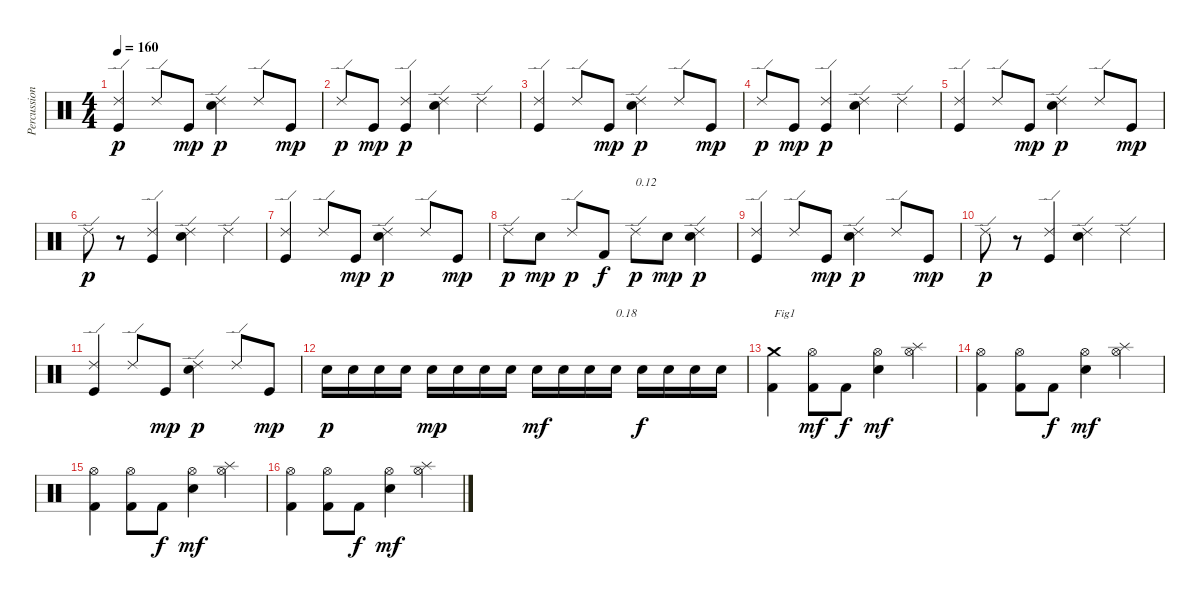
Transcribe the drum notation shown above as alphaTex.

\track ("Percussions" "Percussion") {instrument percussion}
\staff {score}
\articulation defaults
\ts (4 4)
\tempo 160
\clef neutral
\ks c
("Kick (hit)" "Ride (edge) 2").4{dy p} "Ride (edge) 2".8 "Kick (hit)".8{dy mp} ("Snare (hit) 2" "Ride (edge) 2").4{dy p} "Ride (edge) 2".8 "Kick (hit)".8{dy mp} |
"Ride (edge) 2".8{dy p} "Kick (hit)".8{dy mp} ("Kick (hit)" "Ride (edge) 2").4{dy p} ("Snare (hit) 2" "Ride (edge) 2").4 "Ride (edge) 2".4 |
("Kick (hit)" "Ride (edge) 2").4 "Ride (edge) 2".8 "Kick (hit)".8{dy mp} ("Snare (hit) 2" "Ride (edge) 2").4{dy p} "Ride (edge) 2".8 "Kick (hit)".8{dy mp} |
"Ride (edge) 2".8{dy p} "Kick (hit)".8{dy mp} ("Kick (hit)" "Ride (edge) 2").4{dy p} ("Snare (hit) 2" "Ride (edge) 2").4 "Ride (edge) 2".4 |
("Kick (hit)" "Ride (edge) 2").4 "Ride (edge) 2".8 "Kick (hit)".8{dy mp} ("Snare (hit) 2" "Ride (edge) 2").4{dy p} "Ride (edge) 2".8 "Kick (hit)".8{dy mp} |
"Ride (edge) 2".8{dy p} r.8 ("Kick (hit)" "Ride (edge) 2").4 ("Snare (hit) 2" "Ride (edge) 2").4 "Ride (edge) 2".4 |
("Kick (hit)" "Ride (edge) 2").4 "Ride (edge) 2".8 "Kick (hit)".8{dy mp} ("Snare (hit) 2" "Ride (edge) 2").4{dy p} "Ride (edge) 2".8 "Kick (hit)".8{dy mp} |
"Ride (edge) 2".8{dy p} "Snare (hit) 2".8{dy mp} "Ride (edge) 2".8{dy p} "Kick (hit) 2".8{dy f} "Ride (edge) 2".8{txt "0.12" dy p} "Snare (hit) 2".8{dy mp} ("Snare (hit) 2" "Ride (edge) 2").4{dy p} |
("Kick (hit)" "Ride (edge) 2").4 "Ride (edge) 2".8 "Kick (hit)".8{dy mp} ("Snare (hit) 2" "Ride (edge) 2").4{dy p} "Ride (edge) 2".8 "Kick (hit)".8{dy mp} |
"Ride (edge) 2".8{dy p} r.8 ("Kick (hit)" "Ride (edge) 2").4 ("Snare (hit) 2" "Ride (edge) 2").4 "Ride (edge) 2".4 |
("Kick (hit)" "Ride (edge) 2").4 "Ride (edge) 2".8 "Kick (hit)".8{dy mp} ("Snare (hit) 2" "Ride (edge) 2").4{dy p} "Ride (edge) 2".8 "Kick (hit)".8{dy mp} |
"Electric Snare (hit)".16{dy p} "Electric Snare (hit)".16 "Electric Snare (hit)".16 "Electric Snare (hit)".16 "Electric Snare (hit)".16{dy mp} "Electric Snare (hit)".16 "Electric Snare (hit)".16 "Electric Snare (hit)".16 "Electric Snare (hit)".16{dy mf} "Electric Snare (hit)".16 "Electric Snare (hit)".16 "Electric Snare (hit)".16{txt "0.18"} "Electric Snare (hit)".16{dy f} "Electric Snare (hit)".16 "Electric Snare (hit)".16 "Electric Snare (hit)".16 |
("Kick (hit) 2" "Crash medium (hit)").4{txt "Fig1"} ("Kick (hit) 2" "Hi-Hat (open)").8{dy mf} "Kick (hit) 2".8{dy f} ("Electric Snare (hit)" "Hi-Hat (open)").4{dy mf} ("Hi-Hat (open)" "Splash (hit)").4 |
("Kick (hit) 2" "Hi-Hat (open)").4 ("Kick (hit) 2" "Hi-Hat (open)").8 "Kick (hit) 2".8{dy f} ("Electric Snare (hit)" "Hi-Hat (open)").4{dy mf} ("Hi-Hat (open)" "Splash (hit)").4 |
("Kick (hit) 2" "Hi-Hat (open)").4 ("Kick (hit) 2" "Hi-Hat (open)").8 "Kick (hit) 2".8{dy f} ("Electric Snare (hit)" "Hi-Hat (open)").4{dy mf} ("Hi-Hat (open)" "Splash (hit)").4 |
("Kick (hit) 2" "Hi-Hat (open)").4 ("Kick (hit) 2" "Hi-Hat (open)").8 "Kick (hit) 2".8{dy f} ("Electric Snare (hit)" "Hi-Hat (open)").4{dy mf} ("Hi-Hat (open)" "Splash (hit)").4
